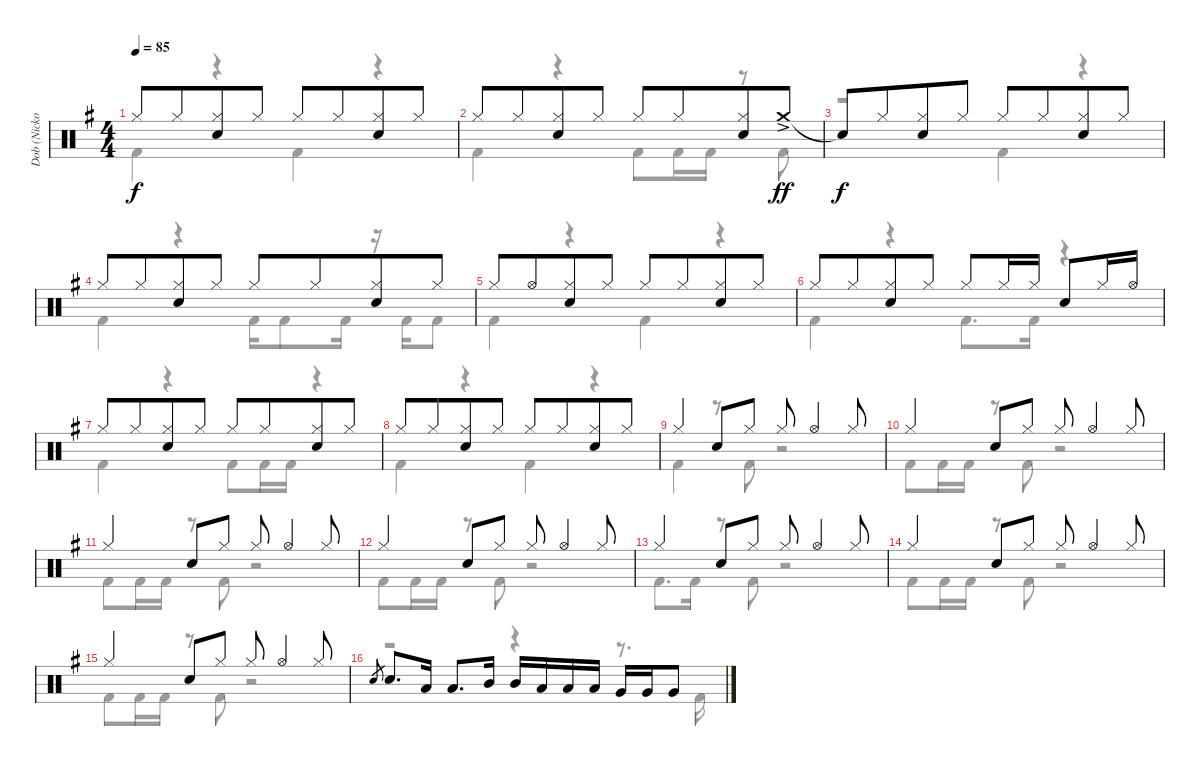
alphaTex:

\track ("Dob (Nicko McBrain)" "Dob (Nicko") {instrument percussion}
\staff {score}
\articulation defaults
\voice
\ts (4 4)
\tempo 85
\clef neutral
\ks g "Hi-Hat (closed)".8{dy f} "Hi-Hat (closed)".8{beam merge}
("Hi-Hat (closed)" "Electric Snare (hit)").8 "Hi-Hat (closed)".8 "Hi-Hat (closed)".8 "Hi-Hat (closed)".8{beam merge} ("Hi-Hat (closed)" "Electric Snare (hit)").8 "Hi-Hat (closed)".8 |
"Hi-Hat (closed)".8 "Hi-Hat (closed)".8{beam merge} ("Hi-Hat (closed)" "Electric Snare (hit)").8 "Hi-Hat (closed)".8 "Hi-Hat (closed)".8 "Hi-Hat (closed)".8{beam merge} ("Hi-Hat (closed)" "Electric Snare (hit)").8 "Crash medium (hit)"{ac}.8{dy ff} |
"Snare (hit)"{t}.8{dy f} "Hi-Hat (closed)".8{beam merge} ("Hi-Hat (closed)" "Electric Snare (hit)").8 "Hi-Hat (closed)".8 "Hi-Hat (closed)".8 "Hi-Hat (closed)".8{beam merge} ("Hi-Hat (closed)" "Electric Snare (hit)").8 "Hi-Hat (closed)".8 |
"Hi-Hat (closed)".8 "Hi-Hat (closed)".8{beam merge} ("Hi-Hat (closed)" "Electric Snare (hit)").8 "Hi-Hat (closed)".8 "Hi-Hat (closed)".8 "Hi-Hat (closed)".8{beam merge} ("Hi-Hat (closed)" "Electric Snare (hit)").8 "Hi-Hat (closed)".8 |
"Hi-Hat (closed)".8 "Hi-Hat (open)".8{beam merge} ("Hi-Hat (closed)" "Electric Snare (hit)").8 "Hi-Hat (closed)".8 "Hi-Hat (closed)".8 "Hi-Hat (closed)".8{beam merge} ("Hi-Hat (closed)" "Electric Snare (hit)").8 "Hi-Hat (closed)".8 |
"Hi-Hat (closed)".8 "Hi-Hat (closed)".8{beam merge} ("Hi-Hat (closed)" "Electric Snare (hit)").8 "Hi-Hat (closed)".8 "Hi-Hat (closed)".8 "Hi-Hat (closed)".16 "Hi-Hat (closed)".16 "Electric Snare (hit)".8 "Hi-Hat (closed)".16 "Hi-Hat (open)".16 |
"Hi-Hat (closed)".8 "Hi-Hat (closed)".8{beam merge} ("Hi-Hat (closed)" "Electric Snare (hit)").8 "Hi-Hat (closed)".8 "Hi-Hat (closed)".8 "Hi-Hat (closed)".8{beam merge} ("Hi-Hat (closed)" "Electric Snare (hit)").8 "Hi-Hat (closed)".8 |
"Hi-Hat (closed)".8 "Hi-Hat (closed)".8{beam merge} ("Hi-Hat (closed)" "Electric Snare (hit)").8 "Hi-Hat (closed)".8 "Hi-Hat (closed)".8 "Hi-Hat (closed)".8{beam merge} ("Hi-Hat (closed)" "Electric Snare (hit)").8 "Hi-Hat (closed)".8 |
"Hi-Hat (closed)".4 "Electric Snare (hit)".8 "Hi-Hat (closed)".8 "Hi-Hat (closed)".8 "Hi-Hat (open)".4 "Hi-Hat (closed)".8 |
"Hi-Hat (closed)".4 "Electric Snare (hit)".8 "Hi-Hat (closed)".8 "Hi-Hat (closed)".8 "Hi-Hat (open)".4 "Hi-Hat (closed)".8 |
"Hi-Hat (closed)".4 "Electric Snare (hit)".8 "Hi-Hat (closed)".8 "Hi-Hat (closed)".8 "Hi-Hat (open)".4 "Hi-Hat (closed)".8 |
"Hi-Hat (closed)".4 "Electric Snare (hit)".8 "Hi-Hat (closed)".8 "Hi-Hat (closed)".8 "Hi-Hat (open)".4 "Hi-Hat (closed)".8 |
"Hi-Hat (closed)".4 "Electric Snare (hit)".8 "Hi-Hat (closed)".8 "Hi-Hat (closed)".8 "Hi-Hat (open)".4 "Hi-Hat (closed)".8 |
"Hi-Hat (closed)".4 "Electric Snare (hit)".8 "Hi-Hat (closed)".8 "Hi-Hat (closed)".8 "Hi-Hat (open)".4 "Hi-Hat (closed)".8 |
"Hi-Hat (closed)".4 "Electric Snare (hit)".8 "Hi-Hat (closed)".8 "Hi-Hat (closed)".8 "Hi-Hat (open)".4 "Hi-Hat (closed)".8 |
"Electric Snare (hit)".8{gr} "Electric Snare (hit)".8{d} "Low Tom (hit)".16 "Low Tom (hit)".8{d} "Mid Tom (hit)".16 "Mid Tom (hit)".16 "Low Tom (hit)".16 "Low Tom (hit)".16 "Low Tom (hit)".16 "Very Low Tom (hit)".16 "Very Low Tom (hit)".16 "Very Low Tom (hit)".8
\voice
\clef neutral
\ottava regular
\simile none
\ks g "Kick (hit) 2".4{dy f}
r.4 "Kick (hit) 2".4 r.4 |
"Kick (hit) 2".4 r.4 "Kick (hit) 2".8 "Kick (hit) 2".16 "Kick (hit) 2".16 r.8 "Kick (hit) 2".8 |
r.2 "Kick (hit) 2".4 r.4 |
"Kick (hit) 2".4 r.4 "Kick (hit) 2".16 "Kick (hit) 2".8 "Kick (hit) 2".16 r.16 "Kick (hit) 2".16 "Kick (hit) 2".8 |
"Kick (hit) 2".4 r.4 "Kick (hit) 2".4 r.4 |
"Kick (hit) 2".4 r.4 "Kick (hit) 2".8{d} "Kick (hit) 2".16 r.4 |
"Kick (hit) 2".4 r.4 "Kick (hit) 2".8 "Kick (hit) 2".16 "Kick (hit) 2".16 r.4 |
"Kick (hit) 2".4 r.4 "Kick (hit) 2".4 r.4 |
"Kick (hit) 2".4 r.8 "Kick (hit) 2".8 r.2 |
"Kick (hit) 2".8 "Kick (hit) 2".16 "Kick (hit) 2".16 r.8 "Kick (hit) 2".8 r.2 |
"Kick (hit) 2".8 "Kick (hit) 2".16 "Kick (hit) 2".16 r.8 "Kick (hit) 2".8 r.2 |
"Kick (hit) 2".8 "Kick (hit) 2".16 "Kick (hit) 2".16 r.8 "Kick (hit) 2".8 r.2 |
"Kick (hit) 2".8{d} "Kick (hit) 2".16 r.8 "Kick (hit) 2".8 r.2 |
"Kick (hit) 2".8 "Kick (hit) 2".16 "Kick (hit) 2".16 r.8 "Kick (hit) 2".8 r.2 |
"Kick (hit) 2".8 "Kick (hit) 2".16 "Kick (hit) 2".16 r.8 "Kick (hit) 2".8 r.2 |
r.2 r.4 r.8{d} "Kick (hit) 2".16
